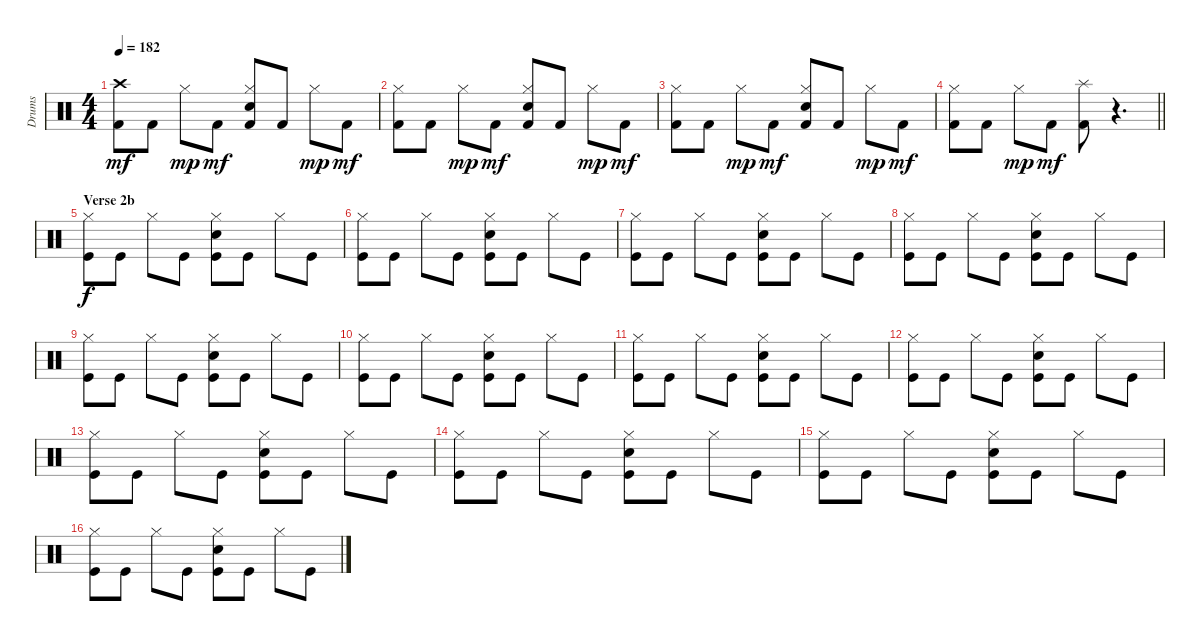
\track ("Drums" "Drums") {instrument percussion}
\staff {score}
\articulation defaults
\ts (4 4)
\tempo 182
\clef neutral
\ks c
("Crash high (hit)" "Kick (hit) 2").8{dy mf} "Kick (hit) 2".8 "Hi-Hat (closed)".8{dy mp} "Kick (hit) 2".8{dy mf} ("Hi-Hat (closed)" "Snare (hit) 2" "Kick (hit) 2").8 "Kick (hit) 2".8 "Hi-Hat (closed)".8{dy mp} "Kick (hit) 2".8{dy mf} |
("Hi-Hat (closed)" "Kick (hit) 2").8 "Kick (hit) 2".8 "Hi-Hat (closed)".8{dy mp} "Kick (hit) 2".8{dy mf} ("Hi-Hat (closed)" "Snare (hit) 2" "Kick (hit) 2").8 "Kick (hit) 2".8 "Hi-Hat (closed)".8{dy mp} "Kick (hit) 2".8{dy mf} |
("Hi-Hat (closed)" "Kick (hit) 2").8 "Kick (hit) 2".8 "Hi-Hat (closed)".8{dy mp} "Kick (hit) 2".8{dy mf} ("Hi-Hat (closed)" "Snare (hit) 2" "Kick (hit) 2").8 "Kick (hit) 2".8 "Hi-Hat (closed)".8{dy mp} "Kick (hit) 2".8{dy mf} |
\barLineRight lightlight
("Hi-Hat (closed)" "Kick (hit) 2").8 "Kick (hit) 2".8 "Hi-Hat (closed)".8{dy mp} "Kick (hit) 2".8{dy mf} ("Splash (hit)" "Kick (hit) 2").8 r.4{d} |
\section ("" "Verse 2b")
("Hi-Hat (closed)" "Kick (hit)").8{dy f} "Kick (hit)".8 "Hi-Hat (closed)".8 "Kick (hit)".8 ("Hi-Hat (closed)" "Snare (hit) 2" "Kick (hit)").8 "Kick (hit)".8 "Hi-Hat (closed)".8 "Kick (hit)".8 |
("Hi-Hat (closed)" "Kick (hit)").8 "Kick (hit)".8 "Hi-Hat (closed)".8 "Kick (hit)".8 ("Hi-Hat (closed)" "Snare (hit) 2" "Kick (hit)").8 "Kick (hit)".8 "Hi-Hat (closed)".8 "Kick (hit)".8 |
("Hi-Hat (closed)" "Kick (hit)").8 "Kick (hit)".8 "Hi-Hat (closed)".8 "Kick (hit)".8 ("Hi-Hat (closed)" "Snare (hit) 2" "Kick (hit)").8 "Kick (hit)".8 "Hi-Hat (closed)".8 "Kick (hit)".8 |
("Hi-Hat (closed)" "Kick (hit)").8 "Kick (hit)".8 "Hi-Hat (closed)".8 "Kick (hit)".8 ("Hi-Hat (closed)" "Snare (hit) 2" "Kick (hit)").8 "Kick (hit)".8 "Hi-Hat (closed)".8 "Kick (hit)".8 |
("Hi-Hat (closed)" "Kick (hit)").8 "Kick (hit)".8 "Hi-Hat (closed)".8 "Kick (hit)".8 ("Hi-Hat (closed)" "Snare (hit) 2" "Kick (hit)").8 "Kick (hit)".8 "Hi-Hat (closed)".8 "Kick (hit)".8 |
("Hi-Hat (closed)" "Kick (hit)").8 "Kick (hit)".8 "Hi-Hat (closed)".8 "Kick (hit)".8 ("Hi-Hat (closed)" "Snare (hit) 2" "Kick (hit)").8 "Kick (hit)".8 "Hi-Hat (closed)".8 "Kick (hit)".8 |
("Hi-Hat (closed)" "Kick (hit)").8 "Kick (hit)".8 "Hi-Hat (closed)".8 "Kick (hit)".8 ("Hi-Hat (closed)" "Snare (hit) 2" "Kick (hit)").8 "Kick (hit)".8 "Hi-Hat (closed)".8 "Kick (hit)".8 |
("Hi-Hat (closed)" "Kick (hit)").8 "Kick (hit)".8 "Hi-Hat (closed)".8 "Kick (hit)".8 ("Hi-Hat (closed)" "Snare (hit) 2" "Kick (hit)").8 "Kick (hit)".8 "Hi-Hat (closed)".8 "Kick (hit)".8 |
("Hi-Hat (closed)" "Kick (hit)").8 "Kick (hit)".8 "Hi-Hat (closed)".8 "Kick (hit)".8 ("Hi-Hat (closed)" "Snare (hit) 2" "Kick (hit)").8 "Kick (hit)".8 "Hi-Hat (closed)".8 "Kick (hit)".8 |
("Hi-Hat (closed)" "Kick (hit)").8 "Kick (hit)".8 "Hi-Hat (closed)".8 "Kick (hit)".8 ("Hi-Hat (closed)" "Snare (hit) 2" "Kick (hit)").8 "Kick (hit)".8 "Hi-Hat (closed)".8 "Kick (hit)".8 |
("Hi-Hat (closed)" "Kick (hit)").8 "Kick (hit)".8 "Hi-Hat (closed)".8 "Kick (hit)".8 ("Hi-Hat (closed)" "Snare (hit) 2" "Kick (hit)").8 "Kick (hit)".8 "Hi-Hat (closed)".8 "Kick (hit)".8 |
("Hi-Hat (closed)" "Kick (hit)").8 "Kick (hit)".8 "Hi-Hat (closed)".8 "Kick (hit)".8 ("Hi-Hat (closed)" "Snare (hit) 2" "Kick (hit)").8 "Kick (hit)".8 "Hi-Hat (closed)".8 "Kick (hit)".8
